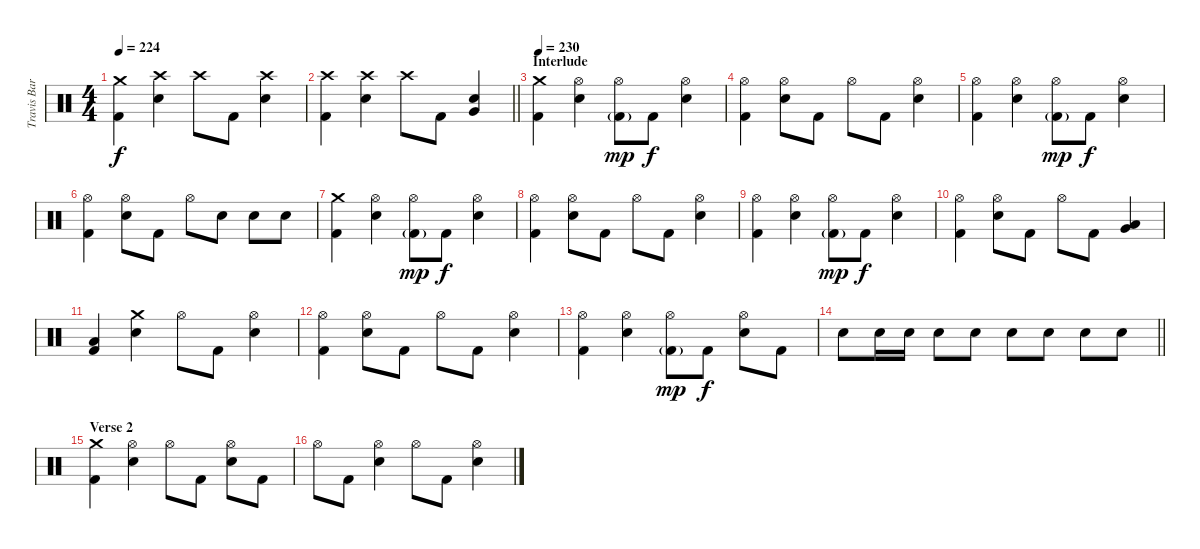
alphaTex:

\track ("Travis Barker - Drums" "Travis Bar") {instrument percussion}
\staff {score}
\articulation defaults
\ts (4 4)
\tempo 224
\clef neutral
\ks c
("Crash medium (hit)" "Kick (hit) 2").4{dy f} ("Crash high (hit)" "Electric Snare (hit)").4 "Crash high (hit)".8 "Kick (hit) 2".8 ("Crash high (hit)" "Electric Snare (hit)").4 |
\barLineRight lightlight
("Crash high (hit)" "Kick (hit) 2").4 ("Crash high (hit)" "Electric Snare (hit)").4 "Crash high (hit)".8 "Kick (hit) 2".8 ("Very Low Tom (hit)" "Electric Snare (hit)").4 |
\section ("" "Interlude")
\tempo 230
("Crash medium (hit)" "Kick (hit) 2").4 ("Hi-Hat (open)" "Electric Snare (hit)").4 ("Hi-Hat (open)" "Kick (hit) 2"{g}).8{dy mp} "Kick (hit) 2".8{dy f} ("Hi-Hat (open)" "Electric Snare (hit)").4 |
("Hi-Hat (open)" "Kick (hit) 2").4 ("Hi-Hat (open)" "Electric Snare (hit)").8 "Kick (hit) 2".8 "Hi-Hat (open)".8 "Kick (hit) 2".8 ("Hi-Hat (open)" "Electric Snare (hit)").4 |
("Hi-Hat (open)" "Kick (hit) 2").4 ("Hi-Hat (open)" "Electric Snare (hit)").4 ("Hi-Hat (open)" "Kick (hit) 2"{g}).8{dy mp} "Kick (hit) 2".8{dy f} ("Hi-Hat (open)" "Electric Snare (hit)").4 |
("Hi-Hat (open)" "Kick (hit) 2").4 ("Hi-Hat (open)" "Electric Snare (hit)").8 "Kick (hit) 2".8 "Hi-Hat (open)".8 "Electric Snare (hit)".8 "Electric Snare (hit)".8 "Electric Snare (hit)".8 |
("Crash medium (hit)" "Kick (hit) 2").4 ("Hi-Hat (open)" "Electric Snare (hit)").4 ("Hi-Hat (open)" "Kick (hit) 2"{g}).8{dy mp} "Kick (hit) 2".8{dy f} ("Hi-Hat (open)" "Electric Snare (hit)").4 |
("Hi-Hat (open)" "Kick (hit) 2").4 ("Hi-Hat (open)" "Electric Snare (hit)").8 "Kick (hit) 2".8 "Hi-Hat (open)".8 "Kick (hit) 2".8 ("Hi-Hat (open)" "Electric Snare (hit)").4 |
("Hi-Hat (open)" "Kick (hit) 2").4 ("Hi-Hat (open)" "Electric Snare (hit)").4 ("Hi-Hat (open)" "Kick (hit) 2"{g}).8{dy mp} "Kick (hit) 2".8{dy f} ("Hi-Hat (open)" "Electric Snare (hit)").4 |
("Hi-Hat (open)" "Kick (hit) 2").4 ("Hi-Hat (open)" "Electric Snare (hit)").8 "Kick (hit) 2".8 "Hi-Hat (open)".8 "Kick (hit) 2".8 ("Very Low Tom (hit)" "Low Tom (hit)").4 |
("Low Floor Tom (hit)" "Kick (hit) 2").4 ("Crash medium (hit)" "Electric Snare (hit)").4 "Hi-Hat (open)".8 "Kick (hit) 2".8 ("Hi-Hat (open)" "Electric Snare (hit)").4 |
("Hi-Hat (open)" "Kick (hit) 2").4 ("Hi-Hat (open)" "Electric Snare (hit)").8 "Kick (hit) 2".8 "Hi-Hat (open)".8 "Kick (hit) 2".8 ("Hi-Hat (open)" "Electric Snare (hit)").4 |
("Hi-Hat (open)" "Kick (hit) 2").4 ("Hi-Hat (open)" "Electric Snare (hit)").4 ("Hi-Hat (open)" "Kick (hit) 2"{g}).8{dy mp} "Kick (hit) 2".8{dy f} ("Hi-Hat (open)" "Electric Snare (hit)").8 "Kick (hit) 2".8 |
\barLineRight lightlight "Electric Snare (hit)".8 "Electric Snare (hit)".16 "Electric Snare (hit)".16 "Electric Snare (hit)".8 "Electric Snare (hit)".8 "Electric Snare (hit)".8 "Electric Snare (hit)".8 "Electric Snare (hit)".8 "Electric Snare (hit)".8
|
\section ("" "Verse 2")
("Crash medium (hit)" "Kick (hit) 2").4 ("Hi-Hat (open)" "Electric Snare (hit)").4 "Hi-Hat (open)".8 "Kick (hit) 2".8 ("Hi-Hat (open)" "Electric Snare (hit)").8 "Kick (hit) 2".8 |
"Hi-Hat (open)".8 "Kick (hit) 2".8 ("Hi-Hat (open)" "Electric Snare (hit)").4 "Hi-Hat (open)".8 "Kick (hit) 2".8 ("Hi-Hat (open)" "Electric Snare (hit)").4
